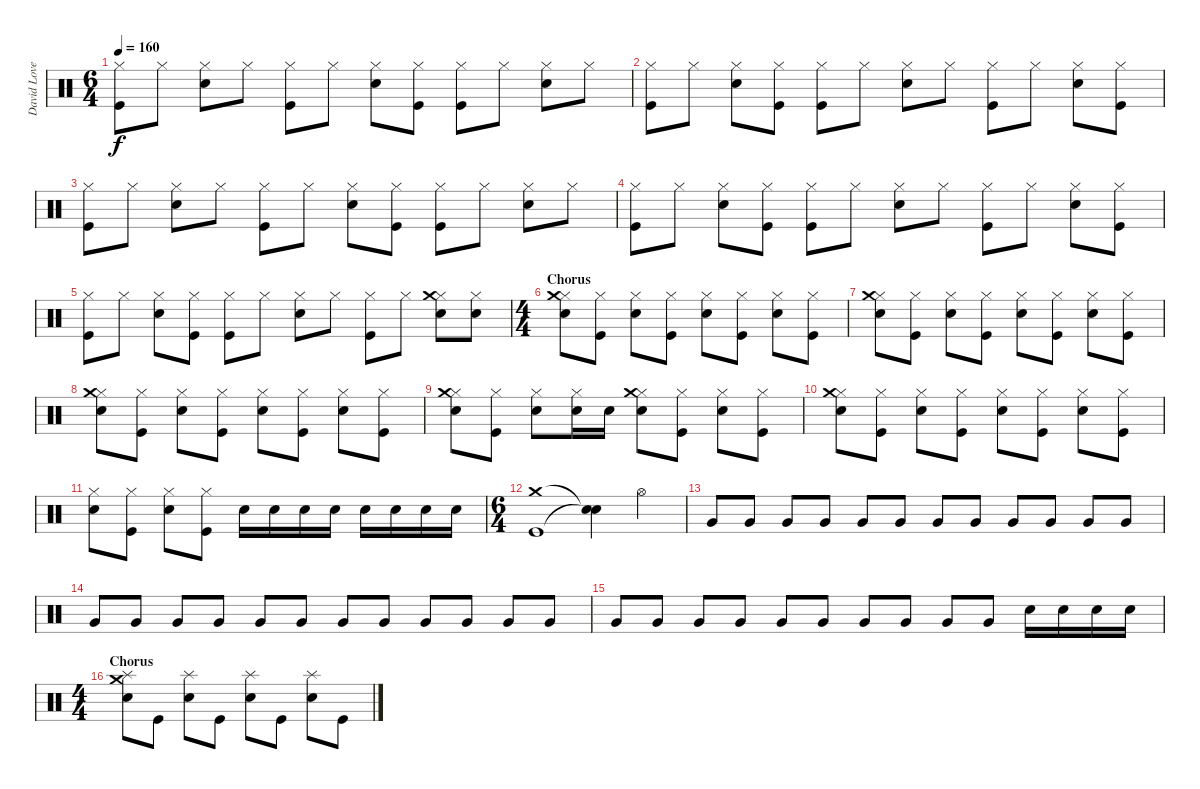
\track ("David Lovering" "David Love") {instrument percussion}
\staff {score}
\articulation defaults
\ts (6 4)
\tempo 160
\clef neutral
\ks c
("Hi-Hat (closed)" "Kick (hit)").8{dy f} "Hi-Hat (closed)".8 ("Hi-Hat (closed)" "Snare (hit) 2").8 "Hi-Hat (closed)".8 ("Hi-Hat (closed)" "Kick (hit)").8 "Hi-Hat (closed)".8 ("Hi-Hat (closed)" "Snare (hit) 2").8 ("Hi-Hat (closed)" "Kick (hit)").8 ("Hi-Hat (closed)" "Kick (hit)").8 "Hi-Hat (closed)".8 ("Hi-Hat (closed)" "Snare (hit) 2").8 "Hi-Hat (closed)".8 |
("Hi-Hat (closed)" "Kick (hit)").8 "Hi-Hat (closed)".8 ("Hi-Hat (closed)" "Snare (hit) 2").8 ("Hi-Hat (closed)" "Kick (hit)").8 ("Hi-Hat (closed)" "Kick (hit)").8 "Hi-Hat (closed)".8 ("Hi-Hat (closed)" "Snare (hit) 2").8 "Hi-Hat (closed)".8 ("Hi-Hat (closed)" "Kick (hit)").8 "Hi-Hat (closed)".8 ("Hi-Hat (closed)" "Snare (hit) 2").8 ("Hi-Hat (closed)" "Kick (hit)").8 |
("Hi-Hat (closed)" "Kick (hit)").8 "Hi-Hat (closed)".8 ("Hi-Hat (closed)" "Snare (hit) 2").8 "Hi-Hat (closed)".8 ("Hi-Hat (closed)" "Kick (hit)").8 "Hi-Hat (closed)".8 ("Hi-Hat (closed)" "Snare (hit) 2").8 ("Hi-Hat (closed)" "Kick (hit)").8 ("Hi-Hat (closed)" "Kick (hit)").8 "Hi-Hat (closed)".8 ("Hi-Hat (closed)" "Snare (hit) 2").8 "Hi-Hat (closed)".8 |
("Hi-Hat (closed)" "Kick (hit)").8 "Hi-Hat (closed)".8 ("Hi-Hat (closed)" "Snare (hit) 2").8 ("Hi-Hat (closed)" "Kick (hit)").8 ("Hi-Hat (closed)" "Kick (hit)").8 "Hi-Hat (closed)".8 ("Hi-Hat (closed)" "Snare (hit) 2").8 "Hi-Hat (closed)".8 ("Hi-Hat (closed)" "Kick (hit)").8 "Hi-Hat (closed)".8 ("Hi-Hat (closed)" "Snare (hit) 2").8 ("Hi-Hat (closed)" "Kick (hit)").8 |
("Hi-Hat (closed)" "Kick (hit)").8 "Hi-Hat (closed)".8 ("Hi-Hat (closed)" "Snare (hit) 2").8 ("Hi-Hat (closed)" "Kick (hit)").8 ("Hi-Hat (closed)" "Kick (hit)").8 "Hi-Hat (closed)".8 ("Hi-Hat (closed)" "Snare (hit) 2").8 "Hi-Hat (closed)".8 ("Hi-Hat (closed)" "Kick (hit)").8 "Hi-Hat (closed)".8 ("Hi-Hat (closed)" "Crash medium (hit)" "Snare (hit) 2").8 ("Hi-Hat (closed)" "Snare (hit) 2").8 |
\ts (4 4)
\section ("" "Chorus")
("Hi-Hat (closed)" "Crash medium (hit)" "Snare (hit) 2").8 ("Hi-Hat (closed)" "Kick (hit)").8 ("Hi-Hat (closed)" "Snare (hit) 2").8 ("Hi-Hat (closed)" "Kick (hit)").8 ("Hi-Hat (closed)" "Snare (hit) 2").8 ("Hi-Hat (closed)" "Kick (hit)").8 ("Hi-Hat (closed)" "Snare (hit) 2").8 ("Hi-Hat (closed)" "Kick (hit)").8 |
("Hi-Hat (closed)" "Crash medium (hit)" "Snare (hit) 2").8 ("Hi-Hat (closed)" "Kick (hit)").8 ("Hi-Hat (closed)" "Snare (hit) 2").8 ("Hi-Hat (closed)" "Kick (hit)").8 ("Hi-Hat (closed)" "Snare (hit) 2").8 ("Hi-Hat (closed)" "Kick (hit)").8 ("Hi-Hat (closed)" "Snare (hit) 2").8 ("Hi-Hat (closed)" "Kick (hit)").8 |
("Hi-Hat (closed)" "Crash medium (hit)" "Snare (hit) 2").8 ("Hi-Hat (closed)" "Kick (hit)").8 ("Hi-Hat (closed)" "Snare (hit) 2").8 ("Hi-Hat (closed)" "Kick (hit)").8 ("Hi-Hat (closed)" "Snare (hit) 2").8 ("Hi-Hat (closed)" "Kick (hit)").8 ("Hi-Hat (closed)" "Snare (hit) 2").8 ("Hi-Hat (closed)" "Kick (hit)").8 |
("Hi-Hat (closed)" "Crash medium (hit)" "Snare (hit) 2").8 ("Hi-Hat (closed)" "Kick (hit)").8 ("Hi-Hat (closed)" "Snare (hit) 2").8 ("Hi-Hat (closed)" "Snare (hit) 2").16 "Snare (hit) 2".16 ("Hi-Hat (closed)" "Crash medium (hit)" "Snare (hit) 2").8 ("Hi-Hat (closed)" "Kick (hit)").8 ("Hi-Hat (closed)" "Snare (hit) 2").8 ("Hi-Hat (closed)" "Kick (hit)").8 |
("Hi-Hat (closed)" "Crash medium (hit)" "Snare (hit) 2").8 ("Hi-Hat (closed)" "Kick (hit)").8 ("Hi-Hat (closed)" "Snare (hit) 2").8 ("Hi-Hat (closed)" "Kick (hit)").8 ("Hi-Hat (closed)" "Snare (hit) 2").8 ("Hi-Hat (closed)" "Kick (hit)").8 ("Hi-Hat (closed)" "Snare (hit) 2").8 ("Hi-Hat (closed)" "Kick (hit)").8 |
("Hi-Hat (closed)" "Snare (hit) 2").8 ("Hi-Hat (closed)" "Kick (hit)").8 ("Hi-Hat (closed)" "Snare (hit) 2").8 ("Hi-Hat (closed)" "Kick (hit)").8 "Snare (hit) 2".16 "Snare (hit) 2".16 "Snare (hit) 2".16 "Snare (hit) 2".16 "Snare (hit) 2".16 "Snare (hit) 2".16 "Snare (hit) 2".16 "Snare (hit) 2".16 |
\ts (6 4)
\section ("" "")
("Crash medium (hit)" "Kick (hit)").1 ("Snare (hit)"{t} "Snare (hit)"{t}).4 "Hi-Hat (open)".4 |
"Very Low Tom (hit)".8{volume 7} "Very Low Tom (hit)".8{volume 13} "Very Low Tom (hit)".8 "Very Low Tom (hit)".8 "Very Low Tom (hit)".8 "Very Low Tom (hit)".8 "Very Low Tom (hit)".8 "Very Low Tom (hit)".8 "Very Low Tom (hit)".8 "Very Low Tom (hit)".8 "Very Low Tom (hit)".8 "Very Low Tom (hit)".8 |
"Very Low Tom (hit)".8 "Very Low Tom (hit)".8 "Very Low Tom (hit)".8 "Very Low Tom (hit)".8 "Very Low Tom (hit)".8 "Very Low Tom (hit)".8 "Very Low Tom (hit)".8 "Very Low Tom (hit)".8 "Very Low Tom (hit)".8 "Very Low Tom (hit)".8 "Very Low Tom (hit)".8 "Very Low Tom (hit)".8 |
"Very Low Tom (hit)".8 "Very Low Tom (hit)".8 "Very Low Tom (hit)".8 "Very Low Tom (hit)".8 "Very Low Tom (hit)".8 "Very Low Tom (hit)".8 "Very Low Tom (hit)".8 "Very Low Tom (hit)".8 "Very Low Tom (hit)".8 "Very Low Tom (hit)".8 "Snare (hit) 2".16 "Snare (hit) 2".16 "Snare (hit) 2".16 "Snare (hit) 2".16 |
\ts (4 4)
\section ("" "Chorus")
("Splash (hit)" "Crash medium (hit)" "Snare (hit) 2").8 "Kick (hit)".8 ("Splash (hit)" "Snare (hit) 2").8 "Kick (hit)".8 ("Splash (hit)" "Snare (hit) 2").8 "Kick (hit)".8 ("Splash (hit)" "Snare (hit) 2").8 "Kick (hit)".8
